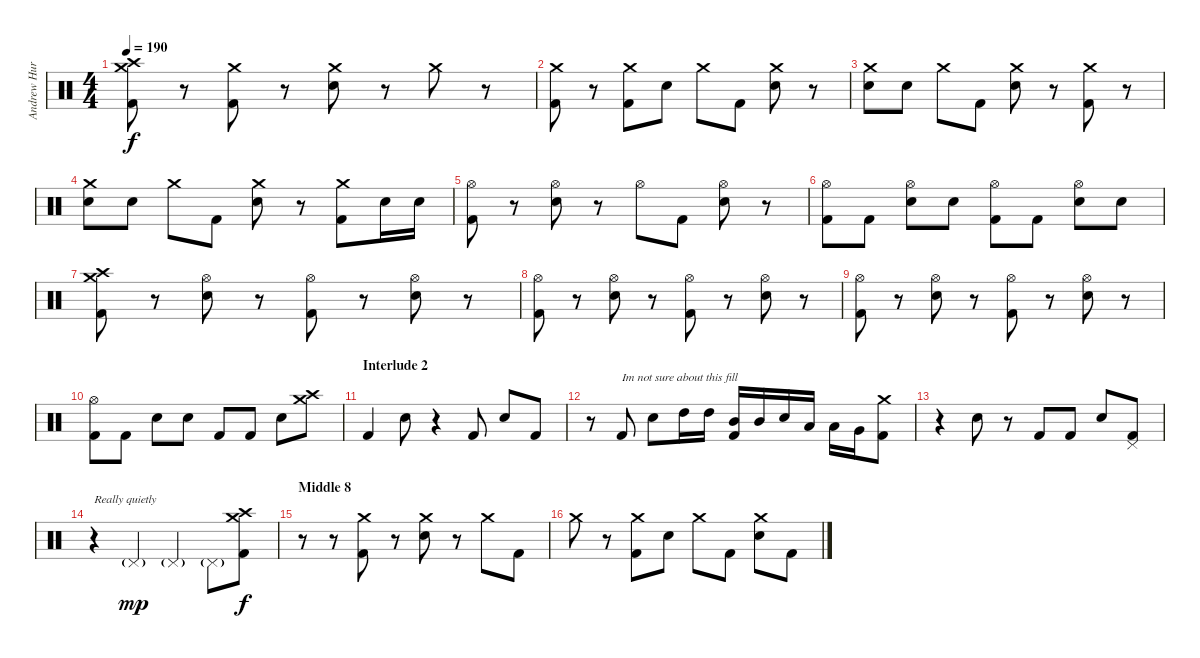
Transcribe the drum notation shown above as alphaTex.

\track ("Andrew Hurley (Drums)" "Andrew Hur") {instrument percussion}
\staff {score}
\articulation defaults
\ts (4 4)
\tempo 190
\clef neutral
\ks c
("Crash medium (hit)" "Crash high (hit)" "Kick (hit) 2").8{dy f} r.8 ("Crash medium (hit)" "Kick (hit) 2").8 r.8 ("Crash medium (hit)" "Electric Snare (hit)").8 r.8 "Crash medium (hit)".8 r.8 |
("Crash medium (hit)" "Kick (hit) 2").8 r.8 ("Crash medium (hit)" "Kick (hit) 2").8 "Electric Snare (hit)".8 "Crash medium (hit)".8 "Kick (hit) 2".8 ("Crash medium (hit)" "Electric Snare (hit)").8 r.8 |
("Crash medium (hit)" "Electric Snare (hit)").8 "Electric Snare (hit)".8 "Crash medium (hit)".8 "Kick (hit) 2".8 ("Crash medium (hit)" "Electric Snare (hit)").8 r.8 ("Crash medium (hit)" "Kick (hit) 2").8 r.8 |
("Crash medium (hit)" "Electric Snare (hit)").8 "Electric Snare (hit)".8 "Crash medium (hit)".8 "Kick (hit) 2".8 ("Crash medium (hit)" "Electric Snare (hit)").8 r.8 ("Crash medium (hit)" "Kick (hit) 2").8 "Electric Snare (hit)".16 "Electric Snare (hit)".16 |
("Hi-Hat (open)" "Kick (hit) 2").8 r.8 ("Hi-Hat (open)" "Electric Snare (hit)").8 r.8 "Hi-Hat (open)".8 "Kick (hit) 2".8 ("Hi-Hat (open)" "Electric Snare (hit)").8 r.8 |
("Hi-Hat (open)" "Kick (hit) 2").8 "Kick (hit) 2".8 ("Hi-Hat (open)" "Electric Snare (hit)").8 "Electric Snare (hit)".8 ("Hi-Hat (open)" "Kick (hit) 2").8 "Kick (hit) 2".8 ("Hi-Hat (open)" "Electric Snare (hit)").8 "Electric Snare (hit)".8 |
("Crash high (hit)" "Crash medium (hit)" "Kick (hit) 2").8 r.8 ("Hi-Hat (open)" "Electric Snare (hit)").8 r.8 ("Hi-Hat (open)" "Kick (hit) 2").8 r.8 ("Hi-Hat (open)" "Electric Snare (hit)").8 r.8 |
("Hi-Hat (open)" "Kick (hit) 2").8 r.8 ("Hi-Hat (open)" "Electric Snare (hit)").8 r.8 ("Hi-Hat (open)" "Kick (hit) 2").8 r.8 ("Hi-Hat (open)" "Electric Snare (hit)").8 r.8 |
("Hi-Hat (open)" "Kick (hit) 2").8 r.8 ("Hi-Hat (open)" "Electric Snare (hit)").8 r.8 ("Hi-Hat (open)" "Kick (hit) 2").8 r.8 ("Hi-Hat (open)" "Electric Snare (hit)").8 r.8 |
("Hi-Hat (open)" "Kick (hit) 2").8 "Kick (hit) 2".8 "Electric Snare (hit)".8 "Electric Snare (hit)".8 "Kick (hit) 2".8 "Kick (hit) 2".8 "Electric Snare (hit)".8 ("Crash medium (hit)" "Crash high (hit)").8 |
\section ("" "Interlude 2")
"Kick (hit) 2".4 "Electric Snare (hit)".8 r.4 "Kick (hit) 2".8 "Electric Snare (hit)".8 "Kick (hit) 2".8 |
r.8 "Kick (hit) 2".8{txt "Im not sure about this fill"} "Electric Snare (hit)".8 "High Tom (hit)".16 "High Tom (hit)".16 ("Mid Tom (hit)" "Kick (hit) 2").16 "Mid Tom (hit)".16 "Electric Snare (hit)".16 "Low Tom (hit)".16 "Low Tom (hit)".16 "Very Low Tom (hit)".16 ("Crash medium (hit)" "Kick (hit) 2").8 |
r.4 "Electric Snare (hit)".8 r.8 "Kick (hit) 2".8 "Kick (hit) 2".8 "Electric Snare (hit)".8 ("Pedal Hi-Hat (hit)" "Kick (hit) 2").8 |
r.4{txt "Really quietly"} "Pedal Hi-Hat (hit)"{g}.4{dy mp} "Pedal Hi-Hat (hit)"{g}.4 "Pedal Hi-Hat (hit)"{g}.8 ("Crash medium (hit)" "Crash high (hit)" "Kick (hit) 2").8{dy f} |
\section ("" "Middle 8")
r.8 r.8 ("Crash medium (hit)" "Kick (hit) 2").8 r.8 ("Crash medium (hit)" "Electric Snare (hit)").8 r.8 "Crash medium (hit)".8 "Kick (hit) 2".8 |
"Crash medium (hit)".8 r.8 ("Crash medium (hit)" "Kick (hit) 2").8 "Electric Snare (hit)".8 "Crash medium (hit)".8 "Kick (hit) 2".8 ("Crash medium (hit)" "Electric Snare (hit)").8 "Kick (hit) 2".8
